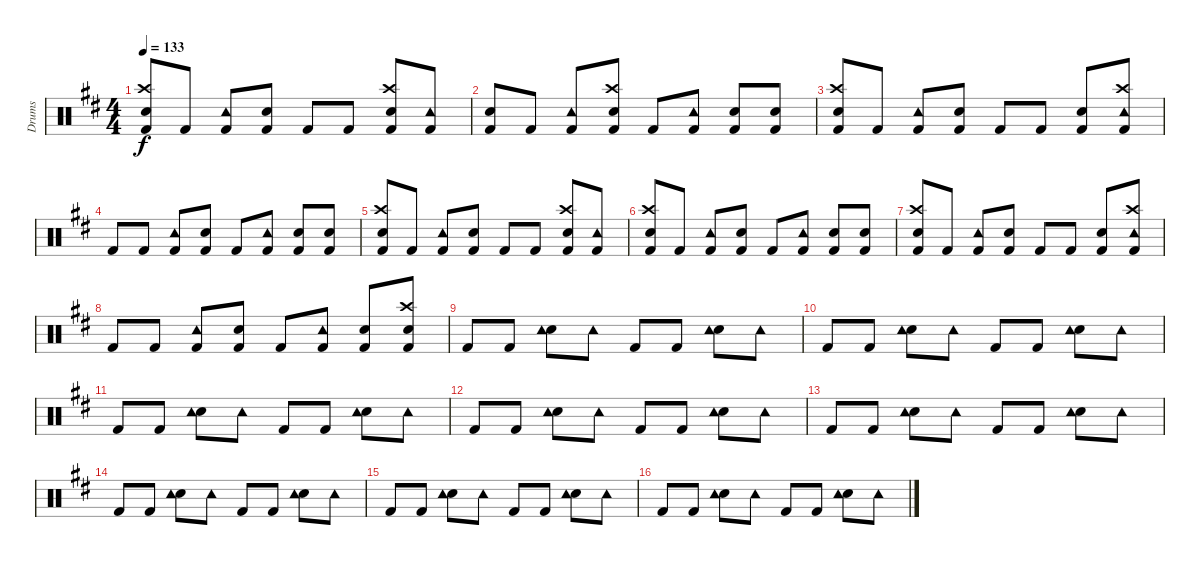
\track ("Drums" "Drums") {instrument percussion}
\staff {score}
\articulation defaults
\ts (4 4)
\tempo 133
\clef neutral
\ks d
("Kick (hit) 2" "Crash high (hit)" "Snare (hit) 2").8{dy f} "Kick (hit) 2".8 ("Kick (hit) 2" "Tambourine (hit)").8 ("Kick (hit) 2" "Snare (hit) 2").8 "Kick (hit) 2".8 "Kick (hit) 2".8 ("Kick (hit) 2" "Snare (hit) 2" "Crash high (hit)").8 ("Kick (hit) 2" "Tambourine (hit)").8 |
("Kick (hit) 2" "Snare (hit) 2").8 "Kick (hit) 2".8 ("Kick (hit) 2" "Tambourine (hit)").8 ("Kick (hit) 2" "Snare (hit) 2" "Crash high (hit)").8 "Kick (hit) 2".8 ("Kick (hit) 2" "Tambourine (hit)").8 ("Kick (hit) 2" "Snare (hit) 2").8 ("Kick (hit) 2" "Snare (hit) 2").8 |
("Kick (hit) 2" "Crash high (hit)" "Snare (hit) 2").8 "Kick (hit) 2".8 ("Kick (hit) 2" "Tambourine (hit)").8 ("Kick (hit) 2" "Snare (hit) 2").8 "Kick (hit) 2".8 "Kick (hit) 2".8 ("Kick (hit) 2" "Snare (hit) 2").8 ("Kick (hit) 2" "Tambourine (hit)" "Crash high (hit)").8 |
"Kick (hit) 2".8 "Kick (hit) 2".8 ("Kick (hit) 2" "Tambourine (hit)").8 ("Kick (hit) 2" "Snare (hit) 2").8 "Kick (hit) 2".8 ("Kick (hit) 2" "Tambourine (hit)").8 ("Kick (hit) 2" "Snare (hit) 2").8 ("Kick (hit) 2" "Snare (hit) 2").8 |
("Kick (hit) 2" "Crash high (hit)" "Snare (hit) 2").8 "Kick (hit) 2".8 ("Kick (hit) 2" "Tambourine (hit)").8 ("Kick (hit) 2" "Snare (hit) 2").8 "Kick (hit) 2".8 "Kick (hit) 2".8 ("Kick (hit) 2" "Snare (hit) 2" "Crash high (hit)").8 ("Kick (hit) 2" "Tambourine (hit)").8 |
("Kick (hit) 2" "Snare (hit) 2" "Crash high (hit)").8 "Kick (hit) 2".8 ("Kick (hit) 2" "Tambourine (hit)").8 ("Kick (hit) 2" "Snare (hit) 2").8 "Kick (hit) 2".8 ("Kick (hit) 2" "Tambourine (hit)").8 ("Kick (hit) 2" "Snare (hit) 2").8 ("Kick (hit) 2" "Snare (hit) 2").8 |
("Kick (hit) 2" "Crash high (hit)" "Snare (hit) 2").8 "Kick (hit) 2".8 ("Kick (hit) 2" "Tambourine (hit)").8 ("Kick (hit) 2" "Snare (hit) 2").8 "Kick (hit) 2".8 "Kick (hit) 2".8 ("Kick (hit) 2" "Snare (hit) 2").8 ("Kick (hit) 2" "Tambourine (hit)" "Crash high (hit)").8 |
"Kick (hit) 2".8 "Kick (hit) 2".8 ("Kick (hit) 2" "Tambourine (hit)").8 ("Kick (hit) 2" "Snare (hit) 2").8 "Kick (hit) 2".8 ("Kick (hit) 2" "Tambourine (hit)").8 ("Kick (hit) 2" "Snare (hit) 2").8 ("Kick (hit) 2" "Snare (hit) 2" "Crash high (hit)").8 |
"Kick (hit) 2".8 "Kick (hit) 2".8 ("Snare (hit) 2" "Tambourine (hit)").8 "Tambourine (hit)".8 "Kick (hit) 2".8 "Kick (hit) 2".8 ("Snare (hit) 2" "Tambourine (hit)").8 "Tambourine (hit)".8 |
"Kick (hit) 2".8 "Kick (hit) 2".8 ("Snare (hit) 2" "Tambourine (hit)").8 "Tambourine (hit)".8 "Kick (hit) 2".8 "Kick (hit) 2".8 ("Snare (hit) 2" "Tambourine (hit)").8 "Tambourine (hit)".8 |
"Kick (hit) 2".8 "Kick (hit) 2".8 ("Snare (hit) 2" "Tambourine (hit)").8 "Tambourine (hit)".8 "Kick (hit) 2".8 "Kick (hit) 2".8 ("Snare (hit) 2" "Tambourine (hit)").8 "Tambourine (hit)".8 |
"Kick (hit) 2".8 "Kick (hit) 2".8 ("Snare (hit) 2" "Tambourine (hit)").8 "Tambourine (hit)".8 "Kick (hit) 2".8 "Kick (hit) 2".8 ("Snare (hit) 2" "Tambourine (hit)").8 "Tambourine (hit)".8 |
"Kick (hit) 2".8 "Kick (hit) 2".8 ("Snare (hit) 2" "Tambourine (hit)").8 "Tambourine (hit)".8 "Kick (hit) 2".8 "Kick (hit) 2".8 ("Snare (hit) 2" "Tambourine (hit)").8 "Tambourine (hit)".8 |
"Kick (hit) 2".8 "Kick (hit) 2".8 ("Snare (hit) 2" "Tambourine (hit)").8 "Tambourine (hit)".8 "Kick (hit) 2".8 "Kick (hit) 2".8 ("Snare (hit) 2" "Tambourine (hit)").8 "Tambourine (hit)".8 |
"Kick (hit) 2".8 "Kick (hit) 2".8 ("Snare (hit) 2" "Tambourine (hit)").8 "Tambourine (hit)".8 "Kick (hit) 2".8 "Kick (hit) 2".8 ("Snare (hit) 2" "Tambourine (hit)").8 "Tambourine (hit)".8 |
"Kick (hit) 2".8 "Kick (hit) 2".8 ("Snare (hit) 2" "Tambourine (hit)").8 "Tambourine (hit)".8 "Kick (hit) 2".8 "Kick (hit) 2".8 ("Snare (hit) 2" "Tambourine (hit)").8 "Tambourine (hit)".8
